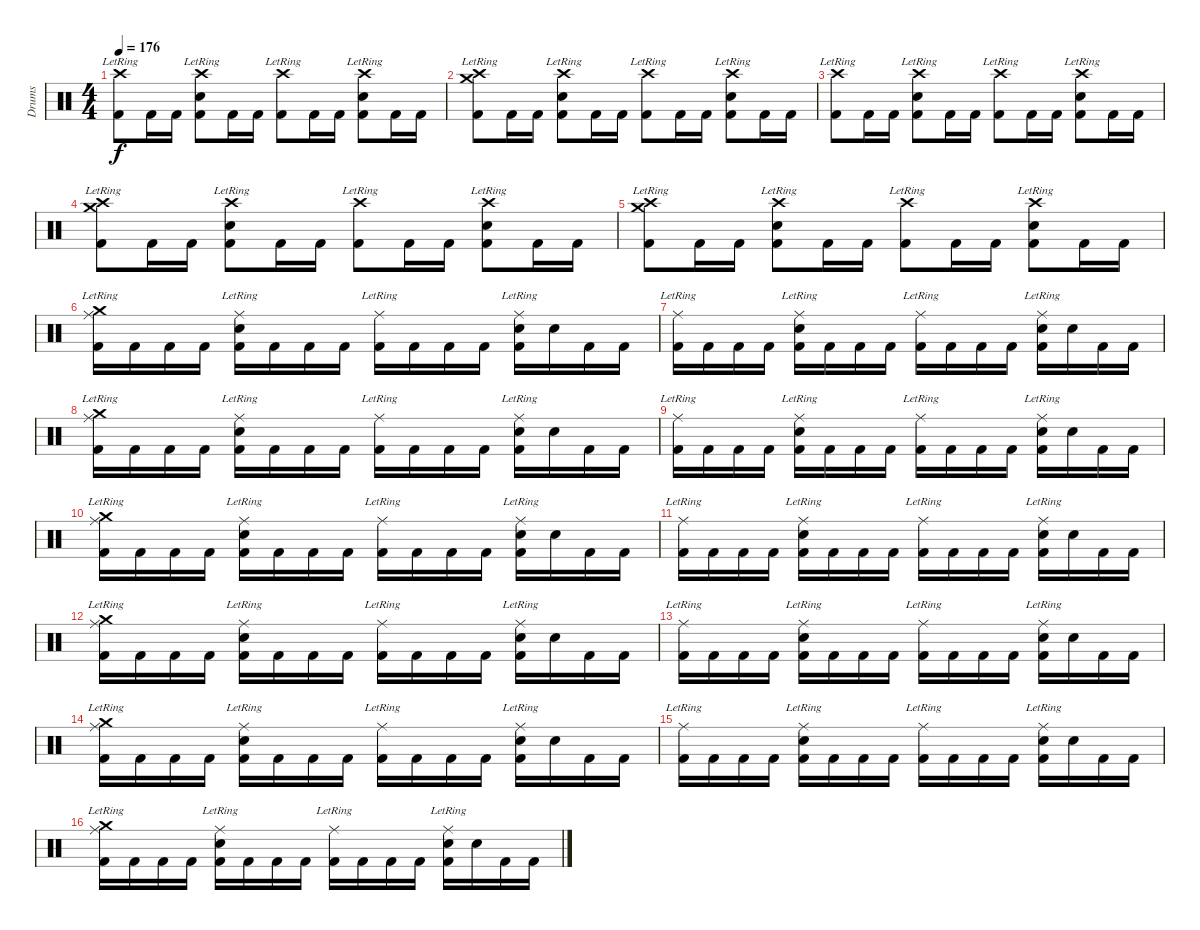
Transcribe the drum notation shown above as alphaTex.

\track ("Drums" "Drums") {instrument percussion}
\staff {score}
\articulation defaults
\ts (4 4)
\tempo 176
\clef neutral
\ks c
("Crash high (hit)"{lr} "Kick (hit) 2").8{dy f} "Kick (hit) 2".16 "Kick (hit) 2".16 ("Crash high (hit)"{lr} "Snare (hit) 2" "Kick (hit) 2").8 "Kick (hit) 2".16 "Kick (hit) 2".16 ("Crash high (hit)"{lr} "Kick (hit) 2").8 "Kick (hit) 2".16 "Kick (hit) 2".16 ("Crash high (hit)"{lr} "Snare (hit) 2" "Kick (hit) 2").8 "Kick (hit) 2".16 "Kick (hit) 2".16 |
("Crash high (hit)"{lr} "Crash medium (hit)" "Kick (hit) 2").8 "Kick (hit) 2".16 "Kick (hit) 2".16 ("Crash high (hit)"{lr} "Snare (hit) 2" "Kick (hit) 2").8 "Kick (hit) 2".16 "Kick (hit) 2".16 ("Crash high (hit)"{lr} "Kick (hit) 2").8 "Kick (hit) 2".16 "Kick (hit) 2".16 ("Crash high (hit)"{lr} "Snare (hit) 2" "Kick (hit) 2").8 "Kick (hit) 2".16 "Kick (hit) 2".16 |
("Crash high (hit)"{lr} "Kick (hit) 2").8 "Kick (hit) 2".16 "Kick (hit) 2".16 ("Crash high (hit)"{lr} "Snare (hit) 2" "Kick (hit) 2").8 "Kick (hit) 2".16 "Kick (hit) 2".16 ("Crash high (hit)"{lr} "Kick (hit) 2").8 "Kick (hit) 2".16 "Kick (hit) 2".16 ("Crash high (hit)"{lr} "Snare (hit) 2" "Kick (hit) 2").8 "Kick (hit) 2".16 "Kick (hit) 2".16 |
("Crash high (hit)"{lr} "Crash medium (hit)" "Kick (hit) 2").8 "Kick (hit) 2".16 "Kick (hit) 2".16 ("Crash high (hit)"{lr} "Snare (hit) 2" "Kick (hit) 2").8 "Kick (hit) 2".16 "Kick (hit) 2".16 ("Crash high (hit)"{lr} "Kick (hit) 2").8 "Kick (hit) 2".16 "Kick (hit) 2".16 ("Crash high (hit)"{lr} "Snare (hit) 2" "Kick (hit) 2").8 "Kick (hit) 2".16 "Kick (hit) 2".16 |
("Crash high (hit)"{lr} "Crash medium (hit)" "Kick (hit) 2").8 "Kick (hit) 2".16 "Kick (hit) 2".16 ("Crash high (hit)"{lr} "Snare (hit) 2" "Kick (hit) 2").8 "Kick (hit) 2".16 "Kick (hit) 2".16 ("Crash high (hit)"{lr} "Kick (hit) 2").8 "Kick (hit) 2".16 "Kick (hit) 2".16 ("Crash high (hit)"{lr} "Snare (hit) 2" "Kick (hit) 2").8 "Kick (hit) 2".16 "Kick (hit) 2".16 |
("Ride (middle)"{lr} "Crash medium (hit)" "Kick (hit) 2").16 "Kick (hit) 2".16 "Kick (hit) 2".16 "Kick (hit) 2".16 ("Ride (middle)"{lr} "Snare (hit) 2" "Kick (hit) 2").16 "Kick (hit) 2".16 "Kick (hit) 2".16 "Kick (hit) 2".16 ("Ride (middle)"{lr} "Kick (hit) 2").16 "Kick (hit) 2".16 "Kick (hit) 2".16 "Kick (hit) 2".16 ("Ride (middle)"{lr} "Snare (hit) 2" "Kick (hit) 2").16 "Snare (hit)".16 "Kick (hit) 2".16 "Kick (hit) 2".16 |
("Ride (middle)"{lr} "Kick (hit) 2").16 "Kick (hit) 2".16 "Kick (hit) 2".16 "Kick (hit) 2".16 ("Ride (middle)"{lr} "Snare (hit) 2" "Kick (hit) 2").16 "Kick (hit) 2".16 "Kick (hit) 2".16 "Kick (hit) 2".16 ("Ride (middle)"{lr} "Kick (hit) 2").16 "Kick (hit) 2".16 "Kick (hit) 2".16 "Kick (hit) 2".16 ("Ride (middle)"{lr} "Snare (hit) 2" "Kick (hit) 2").16 "Snare (hit)".16 "Kick (hit) 2".16 "Kick (hit) 2".16 |
("Ride (middle)"{lr} "Crash medium (hit)" "Kick (hit) 2").16 "Kick (hit) 2".16 "Kick (hit) 2".16 "Kick (hit) 2".16 ("Ride (middle)"{lr} "Snare (hit) 2" "Kick (hit) 2").16 "Kick (hit) 2".16 "Kick (hit) 2".16 "Kick (hit) 2".16 ("Ride (middle)"{lr} "Kick (hit) 2").16 "Kick (hit) 2".16 "Kick (hit) 2".16 "Kick (hit) 2".16 ("Ride (middle)"{lr} "Snare (hit) 2" "Kick (hit) 2").16 "Snare (hit)".16 "Kick (hit) 2".16 "Kick (hit) 2".16 |
("Ride (middle)"{lr} "Kick (hit) 2").16 "Kick (hit) 2".16 "Kick (hit) 2".16 "Kick (hit) 2".16 ("Ride (middle)"{lr} "Snare (hit) 2" "Kick (hit) 2").16 "Kick (hit) 2".16 "Kick (hit) 2".16 "Kick (hit) 2".16 ("Ride (middle)"{lr} "Kick (hit) 2").16 "Kick (hit) 2".16 "Kick (hit) 2".16 "Kick (hit) 2".16 ("Ride (middle)"{lr} "Snare (hit) 2" "Kick (hit) 2").16 "Snare (hit)".16 "Kick (hit) 2".16 "Kick (hit) 2".16 |
("Ride (middle)"{lr} "Crash medium (hit)" "Kick (hit) 2").16 "Kick (hit) 2".16 "Kick (hit) 2".16 "Kick (hit) 2".16 ("Ride (middle)"{lr} "Snare (hit) 2" "Kick (hit) 2").16 "Kick (hit) 2".16 "Kick (hit) 2".16 "Kick (hit) 2".16 ("Ride (middle)"{lr} "Kick (hit) 2").16 "Kick (hit) 2".16 "Kick (hit) 2".16 "Kick (hit) 2".16 ("Ride (middle)"{lr} "Snare (hit) 2" "Kick (hit) 2").16 "Snare (hit)".16 "Kick (hit) 2".16 "Kick (hit) 2".16 |
("Ride (middle)"{lr} "Kick (hit) 2").16 "Kick (hit) 2".16 "Kick (hit) 2".16 "Kick (hit) 2".16 ("Ride (middle)"{lr} "Snare (hit) 2" "Kick (hit) 2").16 "Kick (hit) 2".16 "Kick (hit) 2".16 "Kick (hit) 2".16 ("Ride (middle)"{lr} "Kick (hit) 2").16 "Kick (hit) 2".16 "Kick (hit) 2".16 "Kick (hit) 2".16 ("Ride (middle)"{lr} "Snare (hit) 2" "Kick (hit) 2").16 "Snare (hit)".16 "Kick (hit) 2".16 "Kick (hit) 2".16 |
("Ride (middle)"{lr} "Crash medium (hit)" "Kick (hit) 2").16 "Kick (hit) 2".16 "Kick (hit) 2".16 "Kick (hit) 2".16 ("Ride (middle)"{lr} "Snare (hit) 2" "Kick (hit) 2").16 "Kick (hit) 2".16 "Kick (hit) 2".16 "Kick (hit) 2".16 ("Ride (middle)"{lr} "Kick (hit) 2").16 "Kick (hit) 2".16 "Kick (hit) 2".16 "Kick (hit) 2".16 ("Ride (middle)"{lr} "Snare (hit) 2" "Kick (hit) 2").16 "Snare (hit)".16 "Kick (hit) 2".16 "Kick (hit) 2".16 |
("Ride (middle)"{lr} "Kick (hit) 2").16 "Kick (hit) 2".16 "Kick (hit) 2".16 "Kick (hit) 2".16 ("Ride (middle)"{lr} "Snare (hit) 2" "Kick (hit) 2").16 "Kick (hit) 2".16 "Kick (hit) 2".16 "Kick (hit) 2".16 ("Ride (middle)"{lr} "Kick (hit) 2").16 "Kick (hit) 2".16 "Kick (hit) 2".16 "Kick (hit) 2".16 ("Ride (middle)"{lr} "Snare (hit) 2" "Kick (hit) 2").16 "Snare (hit)".16 "Kick (hit) 2".16 "Kick (hit) 2".16 |
("Ride (middle)"{lr} "Crash medium (hit)" "Kick (hit) 2").16 "Kick (hit) 2".16 "Kick (hit) 2".16 "Kick (hit) 2".16 ("Ride (middle)"{lr} "Snare (hit) 2" "Kick (hit) 2").16 "Kick (hit) 2".16 "Kick (hit) 2".16 "Kick (hit) 2".16 ("Ride (middle)"{lr} "Kick (hit) 2").16 "Kick (hit) 2".16 "Kick (hit) 2".16 "Kick (hit) 2".16 ("Ride (middle)"{lr} "Snare (hit) 2" "Kick (hit) 2").16 "Snare (hit)".16 "Kick (hit) 2".16 "Kick (hit) 2".16 |
("Ride (middle)"{lr} "Kick (hit) 2").16 "Kick (hit) 2".16 "Kick (hit) 2".16 "Kick (hit) 2".16 ("Ride (middle)"{lr} "Snare (hit) 2" "Kick (hit) 2").16 "Kick (hit) 2".16 "Kick (hit) 2".16 "Kick (hit) 2".16 ("Ride (middle)"{lr} "Kick (hit) 2").16 "Kick (hit) 2".16 "Kick (hit) 2".16 "Kick (hit) 2".16 ("Ride (middle)"{lr} "Snare (hit) 2" "Kick (hit) 2").16 "Snare (hit)".16 "Kick (hit) 2".16 "Kick (hit) 2".16 |
("Ride (middle)"{lr} "Crash medium (hit)" "Kick (hit) 2").16 "Kick (hit) 2".16 "Kick (hit) 2".16 "Kick (hit) 2".16 ("Ride (middle)"{lr} "Snare (hit) 2" "Kick (hit) 2").16 "Kick (hit) 2".16 "Kick (hit) 2".16 "Kick (hit) 2".16 ("Ride (middle)"{lr} "Kick (hit) 2").16 "Kick (hit) 2".16 "Kick (hit) 2".16 "Kick (hit) 2".16 ("Ride (middle)"{lr} "Snare (hit) 2" "Kick (hit) 2").16 "Snare (hit)".16 "Kick (hit) 2".16 "Kick (hit) 2".16
